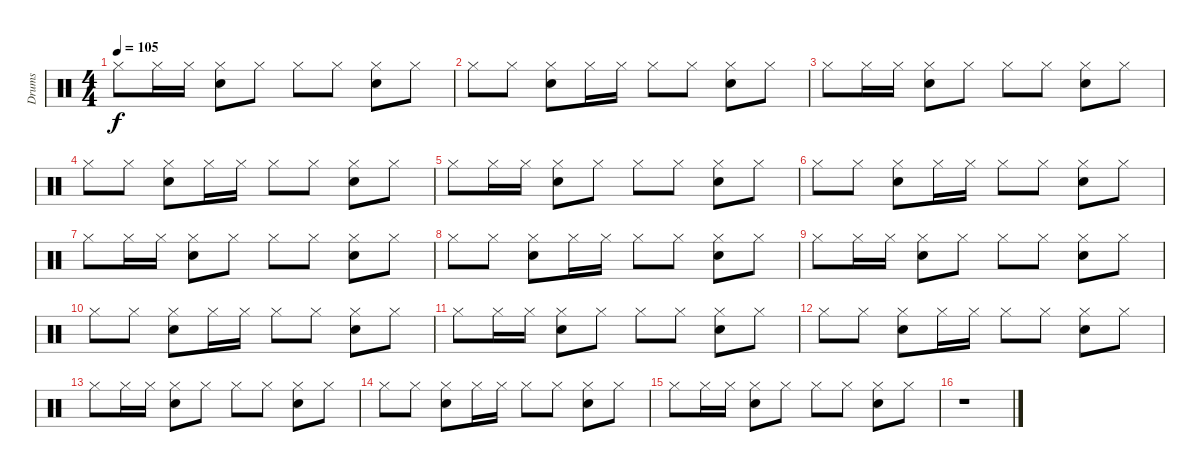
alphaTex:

\track ("Drums" "Drums") {instrument percussion}
\staff {score}
\articulation defaults
\ts (4 4)
\tempo 105
\clef neutral
\ks c "Hi-Hat (closed)".8{dy f} "Hi-Hat (closed)".16 "Hi-Hat (closed)".16
("Hi-Hat (closed)" "Snare (hit) 2").8 "Hi-Hat (closed)".8 "Hi-Hat (closed)".8 "Hi-Hat (closed)".8 ("Hi-Hat (closed)" "Snare (hit) 2").8 "Hi-Hat (closed)".8 |
"Hi-Hat (closed)".8 "Hi-Hat (closed)".8 ("Hi-Hat (closed)" "Snare (hit) 2").8 "Hi-Hat (closed)".16 "Hi-Hat (closed)".16 "Hi-Hat (closed)".8 "Hi-Hat (closed)".8 ("Hi-Hat (closed)" "Snare (hit) 2").8 "Hi-Hat (closed)".8 |
"Hi-Hat (closed)".8 "Hi-Hat (closed)".16 "Hi-Hat (closed)".16 ("Hi-Hat (closed)" "Snare (hit) 2").8 "Hi-Hat (closed)".8 "Hi-Hat (closed)".8 "Hi-Hat (closed)".8 ("Hi-Hat (closed)" "Snare (hit) 2").8 "Hi-Hat (closed)".8 |
"Hi-Hat (closed)".8 "Hi-Hat (closed)".8 ("Hi-Hat (closed)" "Snare (hit) 2").8 "Hi-Hat (closed)".16 "Hi-Hat (closed)".16 "Hi-Hat (closed)".8 "Hi-Hat (closed)".8 ("Hi-Hat (closed)" "Snare (hit) 2").8 "Hi-Hat (closed)".8 |
"Hi-Hat (closed)".8 "Hi-Hat (closed)".16 "Hi-Hat (closed)".16 ("Hi-Hat (closed)" "Snare (hit) 2").8 "Hi-Hat (closed)".8 "Hi-Hat (closed)".8 "Hi-Hat (closed)".8 ("Hi-Hat (closed)" "Snare (hit) 2").8 "Hi-Hat (closed)".8 |
"Hi-Hat (closed)".8 "Hi-Hat (closed)".8 ("Hi-Hat (closed)" "Snare (hit) 2").8 "Hi-Hat (closed)".16 "Hi-Hat (closed)".16 "Hi-Hat (closed)".8 "Hi-Hat (closed)".8 ("Hi-Hat (closed)" "Snare (hit) 2").8 "Hi-Hat (closed)".8 |
"Hi-Hat (closed)".8 "Hi-Hat (closed)".16 "Hi-Hat (closed)".16 ("Hi-Hat (closed)" "Snare (hit) 2").8 "Hi-Hat (closed)".8 "Hi-Hat (closed)".8 "Hi-Hat (closed)".8 ("Hi-Hat (closed)" "Snare (hit) 2").8 "Hi-Hat (closed)".8 |
"Hi-Hat (closed)".8 "Hi-Hat (closed)".8 ("Hi-Hat (closed)" "Snare (hit) 2").8 "Hi-Hat (closed)".16 "Hi-Hat (closed)".16 "Hi-Hat (closed)".8 "Hi-Hat (closed)".8 ("Hi-Hat (closed)" "Snare (hit) 2").8 "Hi-Hat (closed)".8 |
"Hi-Hat (closed)".8 "Hi-Hat (closed)".16 "Hi-Hat (closed)".16 ("Hi-Hat (closed)" "Snare (hit) 2").8 "Hi-Hat (closed)".8 "Hi-Hat (closed)".8 "Hi-Hat (closed)".8 ("Hi-Hat (closed)" "Snare (hit) 2").8 "Hi-Hat (closed)".8 |
"Hi-Hat (closed)".8 "Hi-Hat (closed)".8 ("Hi-Hat (closed)" "Snare (hit) 2").8 "Hi-Hat (closed)".16 "Hi-Hat (closed)".16 "Hi-Hat (closed)".8 "Hi-Hat (closed)".8 ("Hi-Hat (closed)" "Snare (hit) 2").8 "Hi-Hat (closed)".8 |
"Hi-Hat (closed)".8 "Hi-Hat (closed)".16 "Hi-Hat (closed)".16 ("Hi-Hat (closed)" "Snare (hit) 2").8 "Hi-Hat (closed)".8 "Hi-Hat (closed)".8 "Hi-Hat (closed)".8 ("Hi-Hat (closed)" "Snare (hit) 2").8 "Hi-Hat (closed)".8 |
"Hi-Hat (closed)".8 "Hi-Hat (closed)".8 ("Hi-Hat (closed)" "Snare (hit) 2").8 "Hi-Hat (closed)".16 "Hi-Hat (closed)".16 "Hi-Hat (closed)".8 "Hi-Hat (closed)".8 ("Hi-Hat (closed)" "Snare (hit) 2").8 "Hi-Hat (closed)".8 |
"Hi-Hat (closed)".8 "Hi-Hat (closed)".16 "Hi-Hat (closed)".16 ("Hi-Hat (closed)" "Snare (hit) 2").8 "Hi-Hat (closed)".8 "Hi-Hat (closed)".8 "Hi-Hat (closed)".8 ("Hi-Hat (closed)" "Snare (hit) 2").8 "Hi-Hat (closed)".8 |
"Hi-Hat (closed)".8 "Hi-Hat (closed)".8 ("Hi-Hat (closed)" "Snare (hit) 2").8 "Hi-Hat (closed)".16 "Hi-Hat (closed)".16 "Hi-Hat (closed)".8 "Hi-Hat (closed)".8 ("Hi-Hat (closed)" "Snare (hit) 2").8 "Hi-Hat (closed)".8 |
"Hi-Hat (closed)".8 "Hi-Hat (closed)".16 "Hi-Hat (closed)".16 ("Hi-Hat (closed)" "Snare (hit) 2").8 "Hi-Hat (closed)".8 "Hi-Hat (closed)".8 "Hi-Hat (closed)".8 ("Hi-Hat (closed)" "Snare (hit) 2").8 "Hi-Hat (closed)".8 |
r.1
